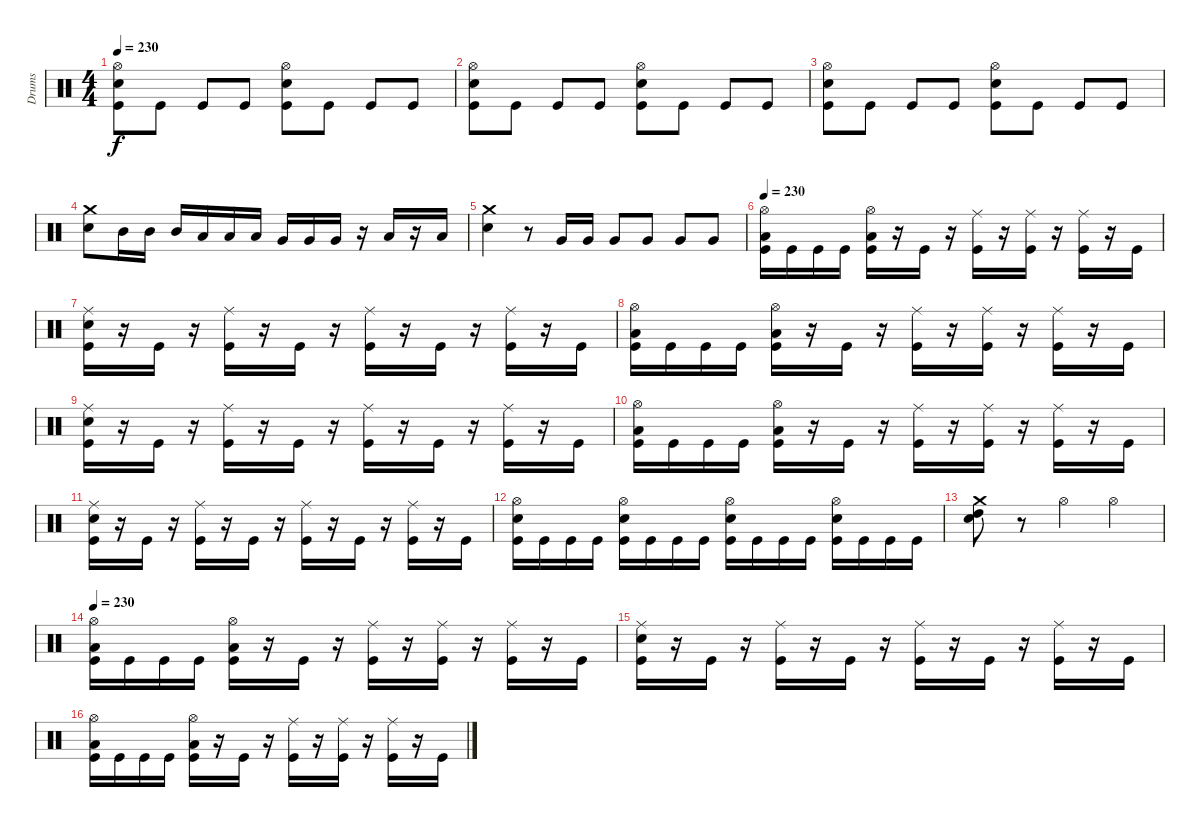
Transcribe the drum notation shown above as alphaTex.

\track ("Drums" "Drums") {instrument percussion}
\staff {score}
\articulation defaults
\ts (4 4)
\tempo 230
\clef neutral
\ks c
("Hi-Hat (open)" "Electric Snare (hit)" "Kick (hit)").8{dy f} "Kick (hit)".8 "Kick (hit)".8 "Kick (hit)".8 ("Hi-Hat (open)" "Electric Snare (hit)" "Kick (hit)").8 "Kick (hit)".8 "Kick (hit)".8 "Kick (hit)".8 |
("Hi-Hat (open)" "Electric Snare (hit)" "Kick (hit)").8 "Kick (hit)".8 "Kick (hit)".8 "Kick (hit)".8 ("Hi-Hat (open)" "Electric Snare (hit)" "Kick (hit)").8 "Kick (hit)".8 "Kick (hit)".8 "Kick (hit)".8 |
("Hi-Hat (open)" "Electric Snare (hit)" "Kick (hit)").8 "Kick (hit)".8 "Kick (hit)".8 "Kick (hit)".8 ("Hi-Hat (open)" "Electric Snare (hit)" "Kick (hit)").8 "Kick (hit)".8 "Kick (hit)".8 "Kick (hit)".8 |
("Crash medium (hit)" "Electric Snare (hit)").8 "Mid Tom (hit)".16 "Mid Tom (hit)".16 "Mid Tom (hit)".16 "Low Tom (hit)".16 "Low Tom (hit)".16 "Low Tom (hit)".16 "Very Low Tom (hit)".16 "Very Low Tom (hit)".16 "Very Low Tom (hit)".16 r.16 "Low Floor Tom (hit)".16 r.16 "Low Floor Tom (hit)".16 |
("Crash medium (hit)" "Electric Snare (hit)").4 r.8 "Very Low Tom (hit)".16 "Very Low Tom (hit)".16 "Very Low Tom (hit)".8 "Very Low Tom (hit)".8 "Very Low Tom (hit)".8 "Very Low Tom (hit)".8 |
\tempo 230
("Hi-Hat (open)" "Low Floor Tom (hit)" "Kick (hit)").16 "Kick (hit)".16 "Kick (hit)".16 "Kick (hit)".16 ("Hi-Hat (open)" "Low Floor Tom (hit)" "Kick (hit)").16 r.16 "Kick (hit)".16 r.16 ("Ride (middle)" "Kick (hit)").16 r.16 ("Ride (middle)" "Kick (hit)").16 r.16 ("Ride (middle)" "Kick (hit)").16 r.16 "Kick (hit)".16 |
("Ride (middle)" "Electric Snare (hit)" "Kick (hit)").16 r.16 "Kick (hit)".16 r.16 ("Ride (middle)" "Kick (hit)").16 r.16 "Kick (hit)".16 r.16 ("Ride (middle)" "Kick (hit)").16 r.16 "Kick (hit)".16 r.16 ("Ride (middle)" "Kick (hit)").16 r.16 "Kick (hit)".16 |
("Hi-Hat (open)" "Low Floor Tom (hit)" "Kick (hit)").16 "Kick (hit)".16 "Kick (hit)".16 "Kick (hit)".16 ("Hi-Hat (open)" "Low Floor Tom (hit)" "Kick (hit)").16 r.16 "Kick (hit)".16 r.16 ("Ride (middle)" "Kick (hit)").16 r.16 ("Ride (middle)" "Kick (hit)").16 r.16 ("Ride (middle)" "Kick (hit)").16 r.16 "Kick (hit)".16 |
("Ride (middle)" "Electric Snare (hit)" "Kick (hit)").16 r.16 "Kick (hit)".16 r.16 ("Ride (middle)" "Kick (hit)").16 r.16 "Kick (hit)".16 r.16 ("Ride (middle)" "Kick (hit)").16 r.16 "Kick (hit)".16 r.16 ("Ride (middle)" "Kick (hit)").16 r.16 "Kick (hit)".16 |
("Hi-Hat (open)" "Low Floor Tom (hit)" "Kick (hit)").16 "Kick (hit)".16 "Kick (hit)".16 "Kick (hit)".16 ("Hi-Hat (open)" "Low Floor Tom (hit)" "Kick (hit)").16 r.16 "Kick (hit)".16 r.16 ("Ride (middle)" "Kick (hit)").16 r.16 ("Ride (middle)" "Kick (hit)").16 r.16 ("Ride (middle)" "Kick (hit)").16 r.16 "Kick (hit)".16 |
("Ride (middle)" "Electric Snare (hit)" "Kick (hit)").16 r.16 "Kick (hit)".16 r.16 ("Ride (middle)" "Kick (hit)").16 r.16 "Kick (hit)".16 r.16 ("Ride (middle)" "Kick (hit)").16 r.16 "Kick (hit)".16 r.16 ("Ride (middle)" "Kick (hit)").16 r.16 "Kick (hit)".16 |
("Hi-Hat (open)" "Electric Snare (hit)" "Kick (hit)").16 "Kick (hit)".16 "Kick (hit)".16 "Kick (hit)".16 ("Hi-Hat (open)" "Electric Snare (hit)" "Kick (hit)").16 "Kick (hit)".16 "Kick (hit)".16 "Kick (hit)".16 ("Hi-Hat (open)" "Electric Snare (hit)" "Kick (hit)").16 "Kick (hit)".16 "Kick (hit)".16 "Kick (hit)".16 ("Hi-Hat (open)" "Electric Snare (hit)" "Kick (hit)").16 "Kick (hit)".16 "Kick (hit)".16 "Kick (hit)".16 |
("Crash medium (hit)" "Electric Snare (hit)" "High Tom (hit)").8 r.8 "Hi-Hat (open)".4 "Hi-Hat (open)".4 |
\tempo 230
("Hi-Hat (open)" "Low Floor Tom (hit)" "Kick (hit)").16 "Kick (hit)".16 "Kick (hit)".16 "Kick (hit)".16 ("Hi-Hat (open)" "Low Floor Tom (hit)" "Kick (hit)").16 r.16 "Kick (hit)".16 r.16 ("Ride (middle)" "Kick (hit)").16 r.16 ("Ride (middle)" "Kick (hit)").16 r.16 ("Ride (middle)" "Kick (hit)").16 r.16 "Kick (hit)".16 |
("Ride (middle)" "Electric Snare (hit)" "Kick (hit)").16 r.16 "Kick (hit)".16 r.16 ("Ride (middle)" "Kick (hit)").16 r.16 "Kick (hit)".16 r.16 ("Ride (middle)" "Kick (hit)").16 r.16 "Kick (hit)".16 r.16 ("Ride (middle)" "Kick (hit)").16 r.16 "Kick (hit)".16 |
("Hi-Hat (open)" "Low Floor Tom (hit)" "Kick (hit)").16 "Kick (hit)".16 "Kick (hit)".16 "Kick (hit)".16 ("Hi-Hat (open)" "Low Floor Tom (hit)" "Kick (hit)").16 r.16 "Kick (hit)".16 r.16 ("Ride (middle)" "Kick (hit)").16 r.16 ("Ride (middle)" "Kick (hit)").16 r.16 ("Ride (middle)" "Kick (hit)").16 r.16 "Kick (hit)".16
